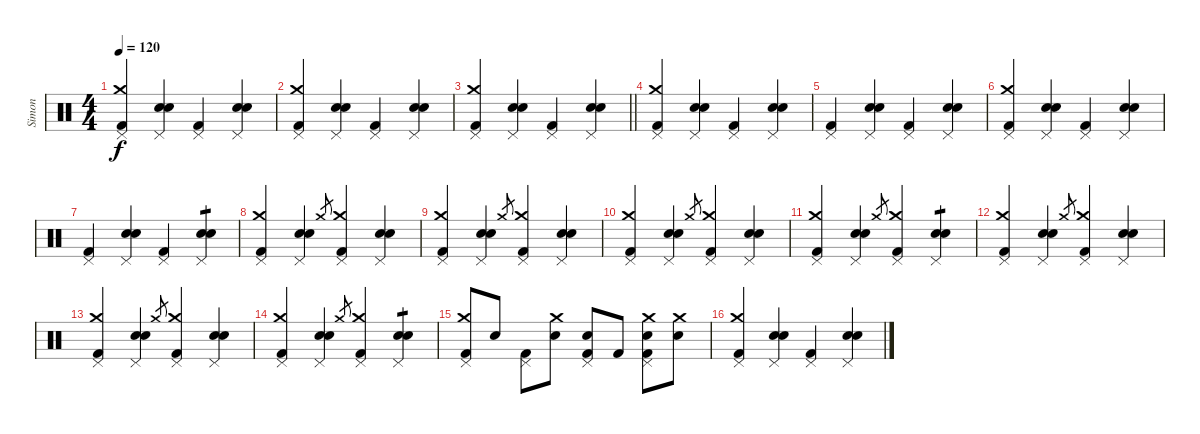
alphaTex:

\track ("Simon" "Simon") {instrument percussion}
\staff {score}
\articulation defaults
\ts (4 4)
\tempo 120
\clef neutral
\ks c
("Kick (hit) 2" "Crash medium (hit)" "Pedal Hi-Hat (hit)").4{dy f} ("Snare (hit) 2" "Electric Snare (hit)" "Pedal Hi-Hat (hit)").4 ("Kick (hit) 2" "Pedal Hi-Hat (hit)").4 ("Snare (hit) 2" "Electric Snare (hit)" "Pedal Hi-Hat (hit)").4 |
("Kick (hit) 2" "Crash medium (hit)" "Pedal Hi-Hat (hit)").4 ("Snare (hit) 2" "Electric Snare (hit)" "Pedal Hi-Hat (hit)").4 ("Kick (hit) 2" "Pedal Hi-Hat (hit)").4 ("Snare (hit) 2" "Electric Snare (hit)" "Pedal Hi-Hat (hit)").4 |
\barLineRight lightlight
("Kick (hit) 2" "Crash medium (hit)" "Pedal Hi-Hat (hit)").4 ("Snare (hit) 2" "Electric Snare (hit)" "Pedal Hi-Hat (hit)").4 ("Kick (hit) 2" "Pedal Hi-Hat (hit)").4 ("Snare (hit) 2" "Electric Snare (hit)" "Pedal Hi-Hat (hit)").4 |
("Kick (hit) 2" "Crash medium (hit)" "Pedal Hi-Hat (hit)").4 ("Snare (hit) 2" "Electric Snare (hit)" "Pedal Hi-Hat (hit)").4 ("Kick (hit) 2" "Pedal Hi-Hat (hit)").4 ("Snare (hit) 2" "Electric Snare (hit)" "Pedal Hi-Hat (hit)").4 |
("Kick (hit) 2" "Pedal Hi-Hat (hit)").4 ("Snare (hit) 2" "Electric Snare (hit)" "Pedal Hi-Hat (hit)").4 ("Kick (hit) 2" "Pedal Hi-Hat (hit)").4 ("Snare (hit) 2" "Electric Snare (hit)" "Pedal Hi-Hat (hit)").4 |
("Kick (hit) 2" "Crash medium (hit)" "Pedal Hi-Hat (hit)").4 ("Snare (hit) 2" "Electric Snare (hit)" "Pedal Hi-Hat (hit)").4 ("Kick (hit) 2" "Pedal Hi-Hat (hit)").4 ("Snare (hit) 2" "Electric Snare (hit)" "Pedal Hi-Hat (hit)").4 |
("Kick (hit) 2" "Pedal Hi-Hat (hit)").4 ("Snare (hit) 2" "Electric Snare (hit)" "Pedal Hi-Hat (hit)").4 ("Kick (hit) 2" "Pedal Hi-Hat (hit)").4 ("Snare (hit) 2" "Electric Snare (hit)" "Pedal Hi-Hat (hit)").4{tp 1} |
("Kick (hit) 2" "Crash medium (hit)" "Pedal Hi-Hat (hit)").4 ("Snare (hit) 2" "Electric Snare (hit)" "Pedal Hi-Hat (hit)").4 "Crash medium (hit)".8{gr} ("Kick (hit) 2" "Crash medium (hit)" "Pedal Hi-Hat (hit)").4 ("Snare (hit) 2" "Electric Snare (hit)" "Pedal Hi-Hat (hit)").4 |
("Kick (hit) 2" "Crash medium (hit)" "Pedal Hi-Hat (hit)").4 ("Snare (hit) 2" "Electric Snare (hit)" "Pedal Hi-Hat (hit)").4 "Crash medium (hit)".8{gr} ("Kick (hit) 2" "Crash medium (hit)" "Pedal Hi-Hat (hit)").4 ("Snare (hit) 2" "Electric Snare (hit)" "Pedal Hi-Hat (hit)").4 |
("Kick (hit) 2" "Crash medium (hit)" "Pedal Hi-Hat (hit)").4 ("Snare (hit) 2" "Electric Snare (hit)" "Pedal Hi-Hat (hit)").4 "Crash medium (hit)".8{gr} ("Kick (hit) 2" "Crash medium (hit)" "Pedal Hi-Hat (hit)").4 ("Snare (hit) 2" "Electric Snare (hit)" "Pedal Hi-Hat (hit)").4 |
("Kick (hit) 2" "Crash medium (hit)" "Pedal Hi-Hat (hit)").4 ("Snare (hit) 2" "Electric Snare (hit)" "Pedal Hi-Hat (hit)").4 "Crash medium (hit)".8{gr} ("Kick (hit) 2" "Crash medium (hit)" "Pedal Hi-Hat (hit)").4 ("Snare (hit) 2" "Electric Snare (hit)" "Pedal Hi-Hat (hit)").4{tp 1} |
("Kick (hit) 2" "Crash medium (hit)" "Pedal Hi-Hat (hit)").4 ("Snare (hit) 2" "Electric Snare (hit)" "Pedal Hi-Hat (hit)").4 "Crash medium (hit)".8{gr} ("Kick (hit) 2" "Crash medium (hit)" "Pedal Hi-Hat (hit)").4 ("Snare (hit) 2" "Electric Snare (hit)" "Pedal Hi-Hat (hit)").4 |
("Kick (hit) 2" "Crash medium (hit)" "Pedal Hi-Hat (hit)").4 ("Snare (hit) 2" "Electric Snare (hit)" "Pedal Hi-Hat (hit)").4 "Crash medium (hit)".8{gr} ("Kick (hit) 2" "Crash medium (hit)" "Pedal Hi-Hat (hit)").4 ("Snare (hit) 2" "Electric Snare (hit)" "Pedal Hi-Hat (hit)").4 |
("Kick (hit) 2" "Crash medium (hit)" "Pedal Hi-Hat (hit)").4 ("Snare (hit) 2" "Electric Snare (hit)" "Pedal Hi-Hat (hit)").4 "Crash medium (hit)".8{gr} ("Kick (hit) 2" "Crash medium (hit)" "Pedal Hi-Hat (hit)").4 ("Snare (hit) 2" "Electric Snare (hit)" "Pedal Hi-Hat (hit)").4{tp 1} |
("Kick (hit) 2" "Crash medium (hit)" "Pedal Hi-Hat (hit)").8 "Electric Snare (hit)".8 ("Kick (hit) 2" "Pedal Hi-Hat (hit)").8 ("Electric Snare (hit)" "Crash medium (hit)").8 ("Kick (hit) 2" "Electric Snare (hit)" "Pedal Hi-Hat (hit)").8 "Kick (hit) 2".8 ("Kick (hit) 2" "Electric Snare (hit)" "Crash medium (hit)" "Pedal Hi-Hat (hit)").8 ("Electric Snare (hit)" "Crash medium (hit)").8 |
("Kick (hit) 2" "Crash medium (hit)" "Pedal Hi-Hat (hit)").4 ("Snare (hit) 2" "Electric Snare (hit)" "Pedal Hi-Hat (hit)").4 ("Kick (hit) 2" "Pedal Hi-Hat (hit)").4 ("Snare (hit) 2" "Electric Snare (hit)" "Pedal Hi-Hat (hit)").4
